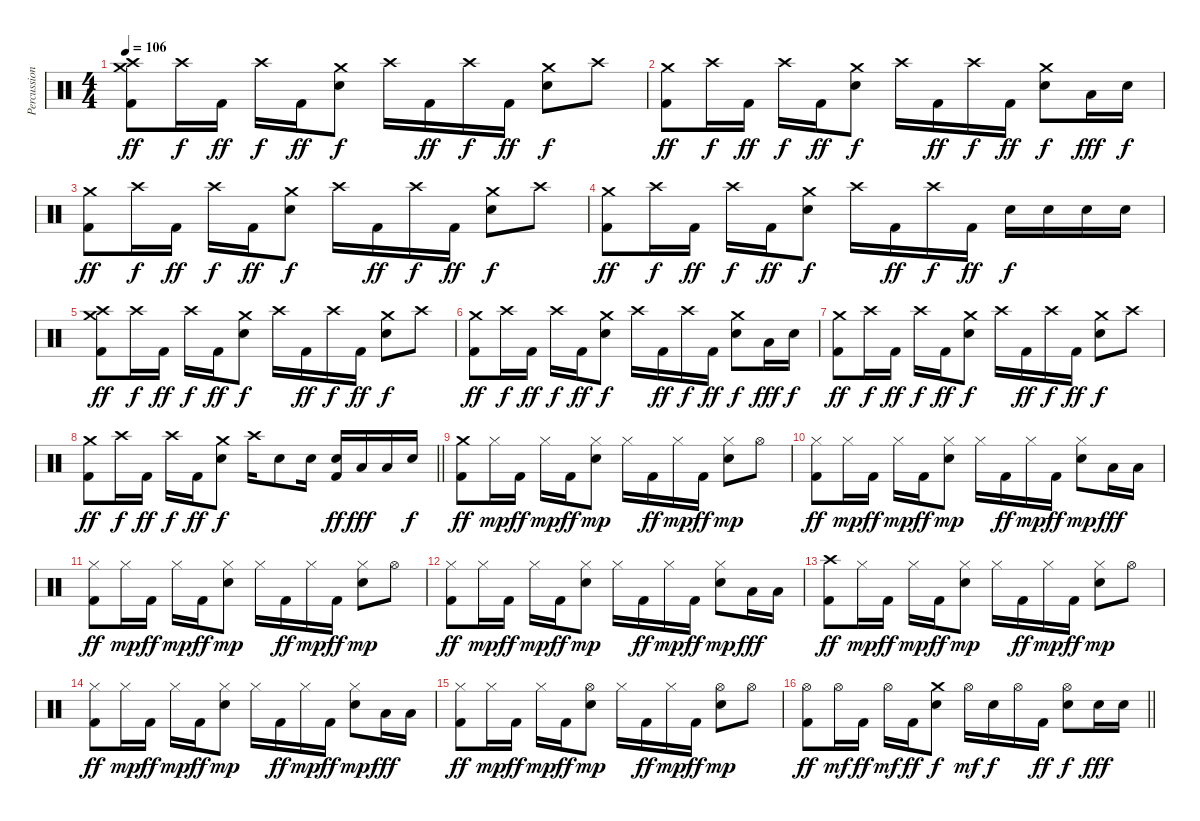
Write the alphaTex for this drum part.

\track ("Percussion" "Percussion") {instrument percussion}
\staff {score}
\articulation defaults
\ts (4 4)
\tempo 106
\clef neutral
\ks c
("Crash medium (hit)" "Crash high (hit)" "Kick (hit) 2").8{dy ff} "Crash high (hit)".16{dy f} "Kick (hit) 2".16{dy ff} "Crash high (hit)".16{dy f} "Kick (hit) 2".16{dy ff} ("Crash medium (hit)" "Electric Snare (hit)").8{dy f} "Crash high (hit)".16 "Kick (hit) 2".16{dy ff} "Crash high (hit)".16{dy f} "Kick (hit) 2".16{dy ff} ("Crash medium (hit)" "Electric Snare (hit)").8{dy f} "Crash high (hit)".8 |
("Crash medium (hit)" "Kick (hit) 2").8{dy ff} "Crash high (hit)".16{dy f} "Kick (hit) 2".16{dy ff} "Crash high (hit)".16{dy f} "Kick (hit) 2".16{dy ff} ("Crash medium (hit)" "Electric Snare (hit)").8{dy f} "Crash high (hit)".16 "Kick (hit) 2".16{dy ff} "Crash high (hit)".16{dy f} "Kick (hit) 2".16{dy ff} ("Crash medium (hit)" "Electric Snare (hit)").8{dy f} "Low Floor Tom (hit)".16{dy fff} "Electric Snare (hit)".16{dy f} |
("Crash medium (hit)" "Kick (hit) 2").8{dy ff} "Crash high (hit)".16{dy f} "Kick (hit) 2".16{dy ff} "Crash high (hit)".16{dy f} "Kick (hit) 2".16{dy ff} ("Crash medium (hit)" "Electric Snare (hit)").8{dy f} "Crash high (hit)".16 "Kick (hit) 2".16{dy ff} "Crash high (hit)".16{dy f} "Kick (hit) 2".16{dy ff} ("Crash medium (hit)" "Electric Snare (hit)").8{dy f} "Crash high (hit)".8 |
("Crash medium (hit)" "Kick (hit) 2").8{dy ff} "Crash high (hit)".16{dy f} "Kick (hit) 2".16{dy ff} "Crash high (hit)".16{dy f} "Kick (hit) 2".16{dy ff} ("Crash medium (hit)" "Electric Snare (hit)").8{dy f} "Crash high (hit)".16 "Kick (hit) 2".16{dy ff} "Crash high (hit)".16{dy f} "Kick (hit) 2".16{dy ff} "Electric Snare (hit)".16{dy f} "Electric Snare (hit)".16 "Electric Snare (hit)".16 "Electric Snare (hit)".16 |
("Crash medium (hit)" "Crash high (hit)" "Kick (hit) 2").8{dy ff} "Crash high (hit)".16{dy f} "Kick (hit) 2".16{dy ff} "Crash high (hit)".16{dy f} "Kick (hit) 2".16{dy ff} ("Crash medium (hit)" "Electric Snare (hit)").8{dy f} "Crash high (hit)".16 "Kick (hit) 2".16{dy ff} "Crash high (hit)".16{dy f} "Kick (hit) 2".16{dy ff} ("Crash medium (hit)" "Electric Snare (hit)").8{dy f} "Crash high (hit)".8 |
("Crash medium (hit)" "Kick (hit) 2").8{dy ff} "Crash high (hit)".16{dy f} "Kick (hit) 2".16{dy ff} "Crash high (hit)".16{dy f} "Kick (hit) 2".16{dy ff} ("Crash medium (hit)" "Electric Snare (hit)").8{dy f} "Crash high (hit)".16 "Kick (hit) 2".16{dy ff} "Crash high (hit)".16{dy f} "Kick (hit) 2".16{dy ff} ("Crash medium (hit)" "Electric Snare (hit)").8{dy f} "Low Floor Tom (hit)".16{dy fff} "Electric Snare (hit)".16{dy f} |
("Crash medium (hit)" "Kick (hit) 2").8{dy ff} "Crash high (hit)".16{dy f} "Kick (hit) 2".16{dy ff} "Crash high (hit)".16{dy f} "Kick (hit) 2".16{dy ff} ("Crash medium (hit)" "Electric Snare (hit)").8{dy f} "Crash high (hit)".16 "Kick (hit) 2".16{dy ff} "Crash high (hit)".16{dy f} "Kick (hit) 2".16{dy ff} ("Crash medium (hit)" "Electric Snare (hit)").8{dy f} "Crash high (hit)".8 |
\barLineRight lightlight
("Crash medium (hit)" "Kick (hit) 2").8{dy ff} "Crash high (hit)".16{dy f} "Kick (hit) 2".16{dy ff} "Crash high (hit)".16{dy f} "Kick (hit) 2".16{dy ff} ("Crash medium (hit)" "Electric Snare (hit)").8{dy f} "Crash high (hit)".16 "Electric Snare (hit)".8 "Electric Snare (hit)".16 ("Electric Snare (hit)" "Kick (hit) 2").16{dy ff} "Low Tom (hit)".16{dy fff} "Low Floor Tom (hit)".16 "Electric Snare (hit)".16{dy f} |
("Crash medium (hit)" "Kick (hit) 2").8{dy ff} "Hi-Hat (closed)".16{dy mp} "Kick (hit) 2".16{dy ff} "Hi-Hat (closed)".16{dy mp} "Kick (hit) 2".16{dy ff} ("Hi-Hat (closed)" "Electric Snare (hit)").8{dy mp} "Hi-Hat (closed)".16 "Kick (hit) 2".16{dy ff} "Hi-Hat (closed)".16{dy mp} "Kick (hit) 2".16{dy ff} ("Hi-Hat (closed)" "Electric Snare (hit)").8{dy mp} "Hi-Hat (open)".8 |
("Hi-Hat (closed)" "Kick (hit) 2").8{dy ff} "Hi-Hat (closed)".16{dy mp} "Kick (hit) 2".16{dy ff} "Hi-Hat (closed)".16{dy mp} "Kick (hit) 2".16{dy ff} ("Hi-Hat (closed)" "Electric Snare (hit)").8{dy mp} "Hi-Hat (closed)".16 "Kick (hit) 2".16{dy ff} "Hi-Hat (closed)".16{dy mp} "Kick (hit) 2".16{dy ff} ("Hi-Hat (closed)" "Electric Snare (hit)").8{dy mp} "Low Tom (hit)".16{dy fff} "Low Tom (hit)".16 |
("Hi-Hat (closed)" "Kick (hit) 2").8{dy ff} "Hi-Hat (closed)".16{dy mp} "Kick (hit) 2".16{dy ff} "Hi-Hat (closed)".16{dy mp} "Kick (hit) 2".16{dy ff} ("Hi-Hat (closed)" "Electric Snare (hit)").8{dy mp} "Hi-Hat (closed)".16 "Kick (hit) 2".16{dy ff} "Hi-Hat (closed)".16{dy mp} "Kick (hit) 2".16{dy ff} ("Hi-Hat (closed)" "Electric Snare (hit)").8{dy mp} "Hi-Hat (open)".8 |
("Hi-Hat (closed)" "Kick (hit) 2").8{dy ff} "Hi-Hat (closed)".16{dy mp} "Kick (hit) 2".16{dy ff} "Hi-Hat (closed)".16{dy mp} "Kick (hit) 2".16{dy ff} ("Hi-Hat (closed)" "Electric Snare (hit)").8{dy mp} "Hi-Hat (closed)".16 "Kick (hit) 2".16{dy ff} "Hi-Hat (closed)".16{dy mp} "Kick (hit) 2".16{dy ff} ("Hi-Hat (closed)" "Electric Snare (hit)").8{dy mp} "Low Tom (hit)".16{dy fff} "Low Tom (hit)".16 |
("Crash high (hit)" "Kick (hit) 2").8{dy ff} "Hi-Hat (closed)".16{dy mp} "Kick (hit) 2".16{dy ff} "Hi-Hat (closed)".16{dy mp} "Kick (hit) 2".16{dy ff} ("Hi-Hat (closed)" "Electric Snare (hit)").8{dy mp} "Hi-Hat (closed)".16 "Kick (hit) 2".16{dy ff} "Hi-Hat (closed)".16{dy mp} "Kick (hit) 2".16{dy ff} ("Hi-Hat (closed)" "Electric Snare (hit)").8{dy mp} "Hi-Hat (open)".8 |
("Hi-Hat (closed)" "Kick (hit) 2").8{dy ff} "Hi-Hat (closed)".16{dy mp} "Kick (hit) 2".16{dy ff} "Hi-Hat (closed)".16{dy mp} "Kick (hit) 2".16{dy ff} ("Hi-Hat (closed)" "Electric Snare (hit)").8{dy mp} "Hi-Hat (closed)".16 "Kick (hit) 2".16{dy ff} "Hi-Hat (closed)".16{dy mp} "Kick (hit) 2".16{dy ff} ("Hi-Hat (closed)" "Electric Snare (hit)").8{dy mp} "Low Tom (hit)".16{dy fff} "Low Tom (hit)".16 |
("Hi-Hat (closed)" "Kick (hit) 2").8{dy ff} "Hi-Hat (closed)".16{dy mp} "Kick (hit) 2".16{dy ff} "Hi-Hat (closed)".16{dy mp} "Kick (hit) 2".16{dy ff} ("Hi-Hat (open)" "Electric Snare (hit)").8{dy mp} "Hi-Hat (closed)".16 "Kick (hit) 2".16{dy ff} "Hi-Hat (closed)".16{dy mp} "Kick (hit) 2".16{dy ff} ("Hi-Hat (open)" "Electric Snare (hit)").8{dy mp} "Hi-Hat (open)".8 |
\barLineRight lightlight
("Hi-Hat (open)" "Kick (hit) 2").8{dy ff} "Hi-Hat (open)".16{dy mf} "Kick (hit) 2".16{dy ff} "Hi-Hat (open)".16{dy mf} "Kick (hit) 2".16{dy ff} ("Crash medium (hit)" "Electric Snare (hit)").8{dy f} "Hi-Hat (open)".16{dy mf} "Electric Snare (hit)".16{dy f} "Hi-Hat (open)".16 "Kick (hit) 2".16{dy ff} ("Hi-Hat (open)" "Electric Snare (hit)").8{dy f} "Electric Snare (hit)".16{dy fff} "Electric Snare (hit)".16
